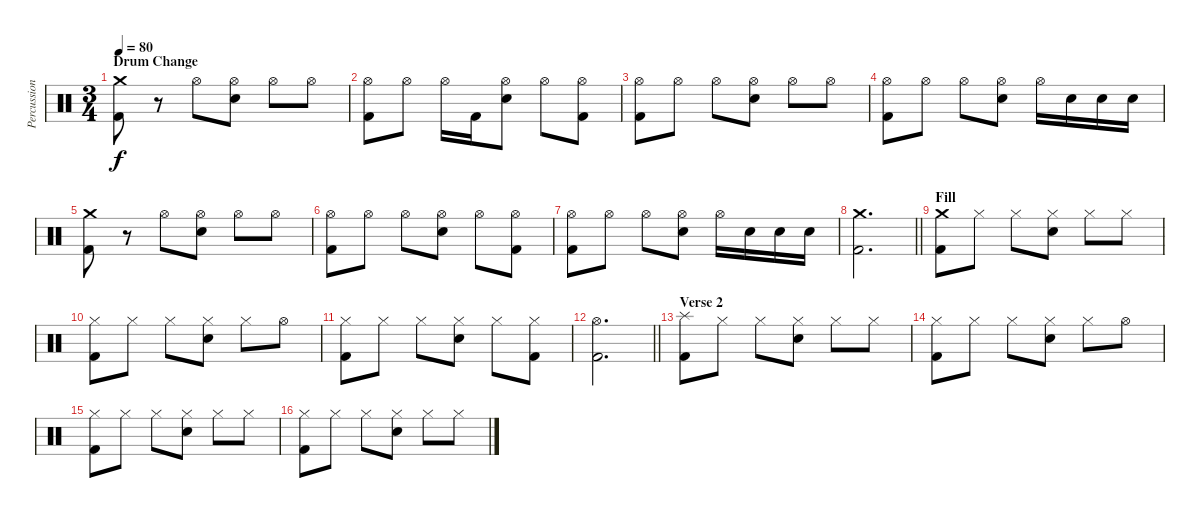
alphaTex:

\track ("Percussion" "Percussion") {instrument percussion}
\staff {score}
\articulation defaults
\ts (3 4)
\section ("" "Drum Change")
\tempo 80
\clef neutral
\ks c
("Crash medium (hit)" "Kick (hit) 2").8{dy f} r.8 "Hi-Hat (open)".8 ("Hi-Hat (open)" "Snare (hit) 2").8 "Hi-Hat (open)".8 "Hi-Hat (open)".8 |
("Hi-Hat (open)" "Kick (hit) 2").8 "Hi-Hat (open)".8 "Hi-Hat (open)".16 "Kick (hit) 2".16 ("Hi-Hat (open)" "Snare (hit) 2").8 "Hi-Hat (open)".8 ("Hi-Hat (open)" "Kick (hit) 2").8 |
("Hi-Hat (open)" "Kick (hit) 2").8 "Hi-Hat (open)".8 "Hi-Hat (open)".8 ("Hi-Hat (open)" "Snare (hit) 2").8 "Hi-Hat (open)".8 "Hi-Hat (open)".8 |
("Hi-Hat (open)" "Kick (hit) 2").8 "Hi-Hat (open)".8 "Hi-Hat (open)".8 ("Hi-Hat (open)" "Snare (hit) 2").8 "Hi-Hat (open)".16 "Snare (hit) 2".16 "Snare (hit) 2".16 "Snare (hit) 2".16 |
("Crash medium (hit)" "Kick (hit) 2").8 r.8 "Hi-Hat (open)".8 ("Hi-Hat (open)" "Snare (hit) 2").8 "Hi-Hat (open)".8 "Hi-Hat (open)".8 |
("Hi-Hat (open)" "Kick (hit) 2").8 "Hi-Hat (open)".8 "Hi-Hat (open)".8 ("Hi-Hat (open)" "Snare (hit) 2").8 "Hi-Hat (open)".8 ("Hi-Hat (open)" "Kick (hit) 2").8 |
("Hi-Hat (open)" "Kick (hit) 2").8 "Hi-Hat (open)".8 "Hi-Hat (open)".8 ("Hi-Hat (open)" "Snare (hit) 2").8 "Hi-Hat (open)".16 "Snare (hit) 2".16 "Snare (hit) 2".16 "Snare (hit) 2".16 |
\barLineRight lightlight
("Crash medium (hit)" "Kick (hit) 2").2{d} |
\section ("" "Fill")
("Crash medium (hit)" "Kick (hit) 2").8 "Hi-Hat (closed)".8 "Hi-Hat (closed)".8 ("Hi-Hat (closed)" "Snare (hit) 2").8 "Hi-Hat (closed)".8 "Hi-Hat (closed)".8 |
("Hi-Hat (closed)" "Kick (hit) 2").8 "Hi-Hat (closed)".8 "Hi-Hat (closed)".8 ("Hi-Hat (closed)" "Snare (hit) 2").8 "Hi-Hat (closed)".8 "Hi-Hat (open)".8 |
("Hi-Hat (closed)" "Kick (hit) 2").8 "Hi-Hat (closed)".8 "Hi-Hat (closed)".8 ("Hi-Hat (closed)" "Snare (hit) 2").8 "Hi-Hat (closed)".8 ("Hi-Hat (closed)" "Kick (hit) 2").8 |
\barLineRight lightlight
("Hi-Hat (open)" "Kick (hit) 2").2{d} |
\section ("" "Verse 2")
("Splash (hit)" "Kick (hit) 2").8 "Hi-Hat (closed)".8 "Hi-Hat (closed)".8 ("Hi-Hat (closed)" "Snare (hit) 2").8 "Hi-Hat (closed)".8 "Hi-Hat (closed)".8 |
("Hi-Hat (closed)" "Kick (hit) 2").8 "Hi-Hat (closed)".8 "Hi-Hat (closed)".8 ("Hi-Hat (closed)" "Snare (hit) 2").8 "Hi-Hat (closed)".8 "Hi-Hat (open)".8 |
("Hi-Hat (closed)" "Kick (hit) 2").8 "Hi-Hat (closed)".8 "Hi-Hat (closed)".8 ("Hi-Hat (closed)" "Snare (hit) 2").8 "Hi-Hat (closed)".8 "Hi-Hat (closed)".8 |
("Hi-Hat (closed)" "Kick (hit) 2").8 "Hi-Hat (closed)".8 "Hi-Hat (closed)".8 ("Hi-Hat (closed)" "Snare (hit) 2").8 "Hi-Hat (closed)".8 "Hi-Hat (closed)".8
